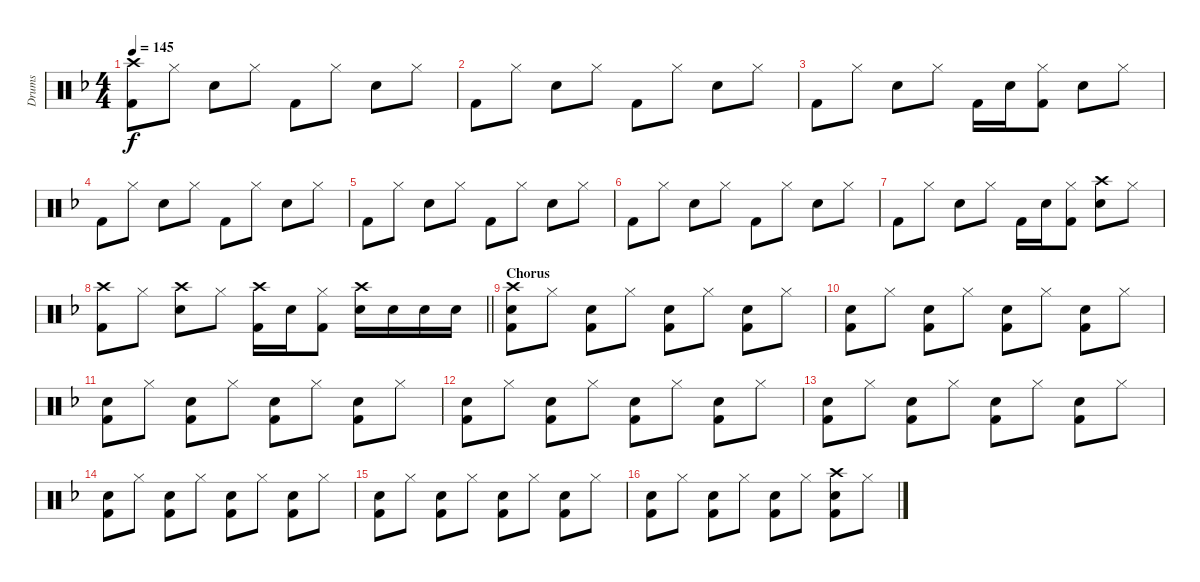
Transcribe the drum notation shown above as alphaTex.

\track ("Drums" "Drums") {instrument percussion}
\staff {score}
\articulation defaults
\ts (4 4)
\tempo 145
\clef neutral
\ks f
("Crash high (hit)" "Kick (hit) 2").8{dy f} "Hi-Hat (closed)".8 "Snare (hit) 2".8 "Hi-Hat (closed)".8 "Kick (hit) 2".8 "Hi-Hat (closed)".8 "Snare (hit) 2".8 "Hi-Hat (closed)".8 |
"Kick (hit) 2".8 "Hi-Hat (closed)".8 "Snare (hit) 2".8 "Hi-Hat (closed)".8 "Kick (hit) 2".8 "Hi-Hat (closed)".8 "Snare (hit) 2".8 "Hi-Hat (closed)".8 |
"Kick (hit) 2".8 "Hi-Hat (closed)".8 "Snare (hit) 2".8 "Hi-Hat (closed)".8 "Kick (hit) 2".16 "Snare (hit) 2".16 ("Kick (hit) 2" "Hi-Hat (closed)").8 "Snare (hit) 2".8 "Hi-Hat (closed)".8 |
"Kick (hit) 2".8 "Hi-Hat (closed)".8 "Snare (hit) 2".8 "Hi-Hat (closed)".8 "Kick (hit) 2".8 "Hi-Hat (closed)".8 "Snare (hit) 2".8 "Hi-Hat (closed)".8 |
"Kick (hit) 2".8 "Hi-Hat (closed)".8 "Snare (hit) 2".8 "Hi-Hat (closed)".8 "Kick (hit) 2".8 "Hi-Hat (closed)".8 "Snare (hit) 2".8 "Hi-Hat (closed)".8 |
"Kick (hit) 2".8 "Hi-Hat (closed)".8 "Snare (hit) 2".8 "Hi-Hat (closed)".8 "Kick (hit) 2".8 "Hi-Hat (closed)".8 "Snare (hit) 2".8 "Hi-Hat (closed)".8 |
"Kick (hit) 2".8 "Hi-Hat (closed)".8 "Snare (hit) 2".8 "Hi-Hat (closed)".8 "Kick (hit) 2".16 "Snare (hit) 2".16 ("Kick (hit) 2" "Hi-Hat (closed)").8 ("Snare (hit) 2" "Crash high (hit)").8 "Hi-Hat (closed)".8 |
\barLineRight lightlight
("Kick (hit) 2" "Crash high (hit)").8 "Hi-Hat (closed)".8 ("Snare (hit) 2" "Crash high (hit)").8 "Hi-Hat (closed)".8 ("Kick (hit) 2" "Crash high (hit)").16 "Snare (hit) 2".16 ("Kick (hit) 2" "Hi-Hat (closed)").8 ("Snare (hit) 2" "Crash high (hit)").16 "Snare (hit) 2".16 "Snare (hit) 2".16 "Snare (hit) 2".16 |
\section ("" "Chorus")
("Kick (hit) 2" "Snare (hit) 2" "Crash high (hit)").8 "Hi-Hat (closed)".8 ("Kick (hit) 2" "Snare (hit) 2").8 "Hi-Hat (closed)".8 ("Kick (hit) 2" "Snare (hit) 2").8 "Hi-Hat (closed)".8 ("Kick (hit) 2" "Snare (hit) 2").8 "Hi-Hat (closed)".8 |
("Kick (hit) 2" "Snare (hit) 2").8 "Hi-Hat (closed)".8 ("Kick (hit) 2" "Snare (hit) 2").8 "Hi-Hat (closed)".8 ("Kick (hit) 2" "Snare (hit) 2").8 "Hi-Hat (closed)".8 ("Kick (hit) 2" "Snare (hit) 2").8 "Hi-Hat (closed)".8 |
("Kick (hit) 2" "Snare (hit) 2").8 "Hi-Hat (closed)".8 ("Kick (hit) 2" "Snare (hit) 2").8 "Hi-Hat (closed)".8 ("Kick (hit) 2" "Snare (hit) 2").8 "Hi-Hat (closed)".8 ("Kick (hit) 2" "Snare (hit) 2").8 "Hi-Hat (closed)".8 |
("Kick (hit) 2" "Snare (hit) 2").8 "Hi-Hat (closed)".8 ("Kick (hit) 2" "Snare (hit) 2").8 "Hi-Hat (closed)".8 ("Kick (hit) 2" "Snare (hit) 2").8 "Hi-Hat (closed)".8 ("Kick (hit) 2" "Snare (hit) 2").8 "Hi-Hat (closed)".8 |
("Kick (hit) 2" "Snare (hit) 2").8 "Hi-Hat (closed)".8 ("Kick (hit) 2" "Snare (hit) 2").8 "Hi-Hat (closed)".8 ("Kick (hit) 2" "Snare (hit) 2").8 "Hi-Hat (closed)".8 ("Kick (hit) 2" "Snare (hit) 2").8 "Hi-Hat (closed)".8 |
("Kick (hit) 2" "Snare (hit) 2").8 "Hi-Hat (closed)".8 ("Kick (hit) 2" "Snare (hit) 2").8 "Hi-Hat (closed)".8 ("Kick (hit) 2" "Snare (hit) 2").8 "Hi-Hat (closed)".8 ("Kick (hit) 2" "Snare (hit) 2").8 "Hi-Hat (closed)".8 |
("Kick (hit) 2" "Snare (hit) 2").8 "Hi-Hat (closed)".8 ("Kick (hit) 2" "Snare (hit) 2").8 "Hi-Hat (closed)".8 ("Kick (hit) 2" "Snare (hit) 2").8 "Hi-Hat (closed)".8 ("Kick (hit) 2" "Snare (hit) 2").8 "Hi-Hat (closed)".8 |
("Kick (hit) 2" "Snare (hit) 2").8 "Hi-Hat (closed)".8 ("Kick (hit) 2" "Snare (hit) 2").8 "Hi-Hat (closed)".8 ("Kick (hit) 2" "Snare (hit) 2").8 "Hi-Hat (closed)".8 ("Kick (hit) 2" "Snare (hit) 2" "Crash high (hit)").8 "Hi-Hat (closed)".8
